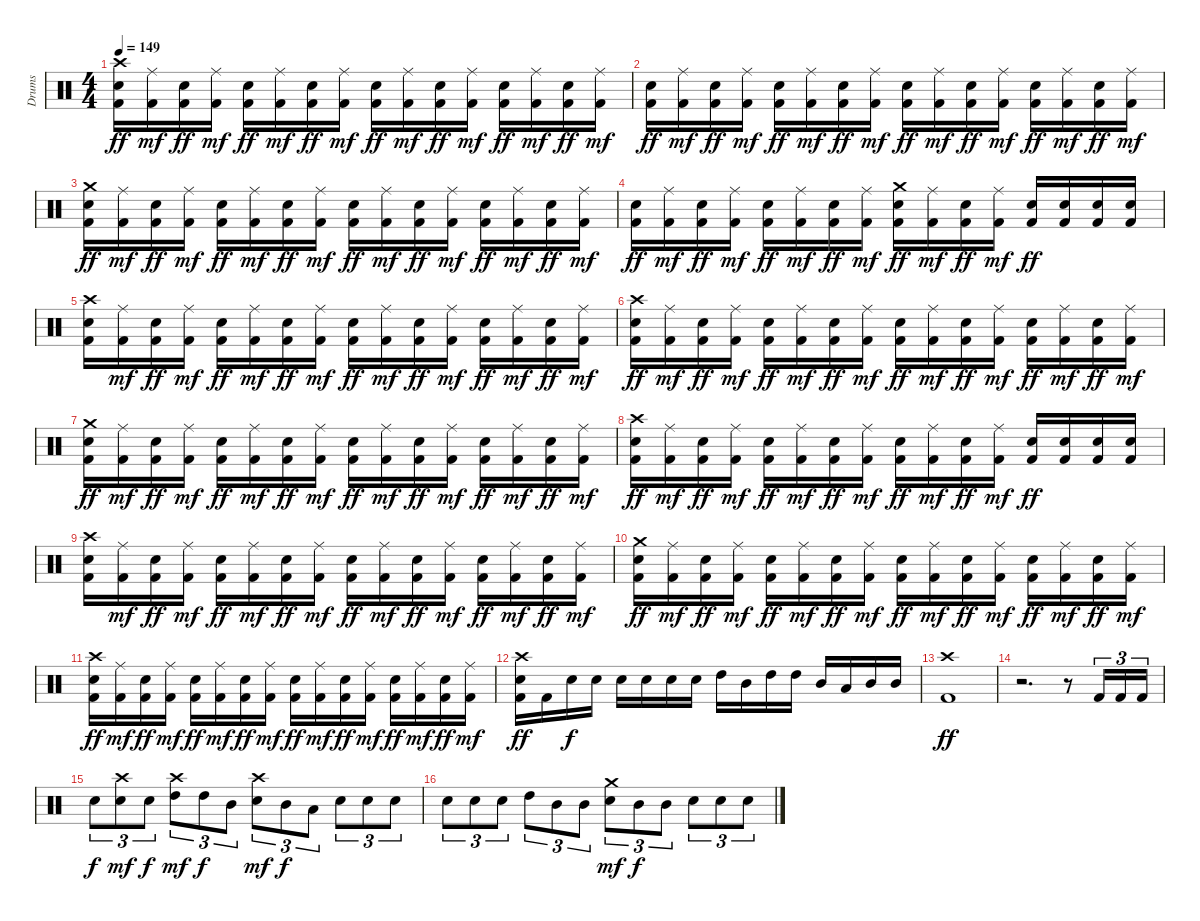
\track ("Drums" "Drums") {instrument percussion}
\staff {score}
\articulation defaults
\ts (4 4)
\tempo 149
\clef neutral
\ks c
("Crash high (hit)" "Snare (hit) 2" "Kick (hit) 2").16{dy ff} ("Kick (hit) 2" "Ride (middle)").16{dy mf} ("Snare (hit) 2" "Kick (hit) 2").16{dy ff} ("Kick (hit) 2" "Ride (middle)").16{dy mf} ("Snare (hit) 2" "Kick (hit) 2").16{dy ff} ("Kick (hit) 2" "Ride (middle)").16{dy mf} ("Snare (hit) 2" "Kick (hit) 2").16{dy ff} ("Kick (hit) 2" "Ride (middle)").16{dy mf} ("Snare (hit) 2" "Kick (hit) 2").16{dy ff} ("Kick (hit) 2" "Ride (middle)").16{dy mf} ("Snare (hit) 2" "Kick (hit) 2").16{dy ff} ("Kick (hit) 2" "Ride (middle)").16{dy mf} ("Snare (hit) 2" "Kick (hit) 2").16{dy ff} ("Kick (hit) 2" "Ride (middle)").16{dy mf} ("Snare (hit) 2" "Kick (hit) 2").16{dy ff} ("Kick (hit) 2" "Ride (middle)").16{dy mf} |
("Snare (hit) 2" "Kick (hit) 2").16{dy ff} ("Kick (hit) 2" "Ride (middle)").16{dy mf} ("Snare (hit) 2" "Kick (hit) 2").16{dy ff} ("Kick (hit) 2" "Ride (middle)").16{dy mf} ("Snare (hit) 2" "Kick (hit) 2").16{dy ff} ("Kick (hit) 2" "Ride (middle)").16{dy mf} ("Snare (hit) 2" "Kick (hit) 2").16{dy ff} ("Kick (hit) 2" "Ride (middle)").16{dy mf} ("Snare (hit) 2" "Kick (hit) 2").16{dy ff} ("Kick (hit) 2" "Ride (middle)").16{dy mf} ("Snare (hit) 2" "Kick (hit) 2").16{dy ff} ("Kick (hit) 2" "Ride (middle)").16{dy mf} ("Snare (hit) 2" "Kick (hit) 2").16{dy ff} ("Kick (hit) 2" "Ride (middle)").16{dy mf} ("Snare (hit) 2" "Kick (hit) 2").16{dy ff} ("Kick (hit) 2" "Ride (middle)").16{dy mf} |
("Crash medium (hit)" "Snare (hit) 2" "Kick (hit) 2").16{dy ff} ("Kick (hit) 2" "Ride (middle)").16{dy mf} ("Snare (hit) 2" "Kick (hit) 2").16{dy ff} ("Kick (hit) 2" "Ride (middle)").16{dy mf} ("Snare (hit) 2" "Kick (hit) 2").16{dy ff} ("Kick (hit) 2" "Ride (middle)").16{dy mf} ("Snare (hit) 2" "Kick (hit) 2").16{dy ff} ("Kick (hit) 2" "Ride (middle)").16{dy mf} ("Snare (hit) 2" "Kick (hit) 2").16{dy ff} ("Kick (hit) 2" "Ride (middle)").16{dy mf} ("Snare (hit) 2" "Kick (hit) 2").16{dy ff} ("Kick (hit) 2" "Ride (middle)").16{dy mf} ("Snare (hit) 2" "Kick (hit) 2").16{dy ff} ("Kick (hit) 2" "Ride (middle)").16{dy mf} ("Snare (hit) 2" "Kick (hit) 2").16{dy ff} ("Kick (hit) 2" "Ride (middle)").16{dy mf} |
("Snare (hit) 2" "Kick (hit) 2").16{dy ff} ("Kick (hit) 2" "Ride (middle)").16{dy mf} ("Snare (hit) 2" "Kick (hit) 2").16{dy ff} ("Kick (hit) 2" "Ride (middle)").16{dy mf} ("Snare (hit) 2" "Kick (hit) 2").16{dy ff} ("Kick (hit) 2" "Ride (middle)").16{dy mf} ("Snare (hit) 2" "Kick (hit) 2").16{dy ff} ("Kick (hit) 2" "Ride (middle)").16{dy mf} ("Crash medium (hit)" "Snare (hit) 2" "Kick (hit) 2").16{dy ff} ("Kick (hit) 2" "Ride (middle)").16{dy mf} ("Snare (hit) 2" "Kick (hit) 2").16{dy ff} ("Kick (hit) 2" "Ride (middle)").16{dy mf} ("Snare (hit) 2" "Kick (hit) 2").16{dy ff} ("Snare (hit) 2" "Kick (hit) 2").16 ("Snare (hit) 2" "Kick (hit) 2").16 ("Snare (hit) 2" "Kick (hit) 2").16 |
("Crash high (hit)" "Snare (hit) 2" "Kick (hit) 2").16 ("Kick (hit) 2" "Ride (middle)").16{dy mf} ("Snare (hit) 2" "Kick (hit) 2").16{dy ff} ("Kick (hit) 2" "Ride (middle)").16{dy mf} ("Snare (hit) 2" "Kick (hit) 2").16{dy ff} ("Kick (hit) 2" "Ride (middle)").16{dy mf} ("Snare (hit) 2" "Kick (hit) 2").16{dy ff} ("Kick (hit) 2" "Ride (middle)").16{dy mf} ("Snare (hit) 2" "Kick (hit) 2").16{dy ff} ("Kick (hit) 2" "Ride (middle)").16{dy mf} ("Snare (hit) 2" "Kick (hit) 2").16{dy ff} ("Kick (hit) 2" "Ride (middle)").16{dy mf} ("Snare (hit) 2" "Kick (hit) 2").16{dy ff} ("Kick (hit) 2" "Ride (middle)").16{dy mf} ("Snare (hit) 2" "Kick (hit) 2").16{dy ff} ("Kick (hit) 2" "Ride (middle)").16{dy mf} |
("Crash high (hit)" "Snare (hit) 2" "Kick (hit) 2").16{dy ff} ("Kick (hit) 2" "Ride (middle)").16{dy mf} ("Snare (hit) 2" "Kick (hit) 2").16{dy ff} ("Kick (hit) 2" "Ride (middle)").16{dy mf} ("Snare (hit) 2" "Kick (hit) 2").16{dy ff} ("Kick (hit) 2" "Ride (middle)").16{dy mf} ("Snare (hit) 2" "Kick (hit) 2").16{dy ff} ("Kick (hit) 2" "Ride (middle)").16{dy mf} ("Snare (hit) 2" "Kick (hit) 2").16{dy ff} ("Kick (hit) 2" "Ride (middle)").16{dy mf} ("Snare (hit) 2" "Kick (hit) 2").16{dy ff} ("Kick (hit) 2" "Ride (middle)").16{dy mf} ("Snare (hit) 2" "Kick (hit) 2").16{dy ff} ("Kick (hit) 2" "Ride (middle)").16{dy mf} ("Snare (hit) 2" "Kick (hit) 2").16{dy ff} ("Kick (hit) 2" "Ride (middle)").16{dy mf} |
("Crash medium (hit)" "Snare (hit) 2" "Kick (hit) 2").16{dy ff} ("Kick (hit) 2" "Ride (middle)").16{dy mf} ("Snare (hit) 2" "Kick (hit) 2").16{dy ff} ("Kick (hit) 2" "Ride (middle)").16{dy mf} ("Snare (hit) 2" "Kick (hit) 2").16{dy ff} ("Kick (hit) 2" "Ride (middle)").16{dy mf} ("Snare (hit) 2" "Kick (hit) 2").16{dy ff} ("Kick (hit) 2" "Ride (middle)").16{dy mf} ("Snare (hit) 2" "Kick (hit) 2").16{dy ff} ("Kick (hit) 2" "Ride (middle)").16{dy mf} ("Snare (hit) 2" "Kick (hit) 2").16{dy ff} ("Kick (hit) 2" "Ride (middle)").16{dy mf} ("Snare (hit) 2" "Kick (hit) 2").16{dy ff} ("Kick (hit) 2" "Ride (middle)").16{dy mf} ("Snare (hit) 2" "Kick (hit) 2").16{dy ff} ("Kick (hit) 2" "Ride (middle)").16{dy mf} |
("Crash high (hit)" "Snare (hit) 2" "Kick (hit) 2").16{dy ff} ("Kick (hit) 2" "Ride (middle)").16{dy mf} ("Snare (hit) 2" "Kick (hit) 2").16{dy ff} ("Kick (hit) 2" "Ride (middle)").16{dy mf} ("Snare (hit) 2" "Kick (hit) 2").16{dy ff} ("Kick (hit) 2" "Ride (middle)").16{dy mf} ("Snare (hit) 2" "Kick (hit) 2").16{dy ff} ("Kick (hit) 2" "Ride (middle)").16{dy mf} ("Snare (hit) 2" "Kick (hit) 2").16{dy ff} ("Kick (hit) 2" "Ride (middle)").16{dy mf} ("Snare (hit) 2" "Kick (hit) 2").16{dy ff} ("Kick (hit) 2" "Ride (middle)").16{dy mf} ("Snare (hit) 2" "Kick (hit) 2").16{dy ff} ("Snare (hit) 2" "Kick (hit) 2").16 ("Snare (hit) 2" "Kick (hit) 2").16 ("Snare (hit) 2" "Kick (hit) 2").16 |
("Crash high (hit)" "Snare (hit) 2" "Kick (hit) 2").16 ("Kick (hit) 2" "Ride (middle)").16{dy mf} ("Snare (hit) 2" "Kick (hit) 2").16{dy ff} ("Kick (hit) 2" "Ride (middle)").16{dy mf} ("Snare (hit) 2" "Kick (hit) 2").16{dy ff} ("Kick (hit) 2" "Ride (middle)").16{dy mf} ("Snare (hit) 2" "Kick (hit) 2").16{dy ff} ("Kick (hit) 2" "Ride (middle)").16{dy mf} ("Snare (hit) 2" "Kick (hit) 2").16{dy ff} ("Kick (hit) 2" "Ride (middle)").16{dy mf} ("Snare (hit) 2" "Kick (hit) 2").16{dy ff} ("Kick (hit) 2" "Ride (middle)").16{dy mf} ("Snare (hit) 2" "Kick (hit) 2").16{dy ff} ("Kick (hit) 2" "Ride (middle)").16{dy mf} ("Snare (hit) 2" "Kick (hit) 2").16{dy ff} ("Kick (hit) 2" "Ride (middle)").16{dy mf} |
("Crash medium (hit)" "Snare (hit) 2" "Kick (hit) 2").16{dy ff} ("Kick (hit) 2" "Ride (middle)").16{dy mf} ("Snare (hit) 2" "Kick (hit) 2").16{dy ff} ("Kick (hit) 2" "Ride (middle)").16{dy mf} ("Snare (hit) 2" "Kick (hit) 2").16{dy ff} ("Kick (hit) 2" "Ride (middle)").16{dy mf} ("Snare (hit) 2" "Kick (hit) 2").16{dy ff} ("Kick (hit) 2" "Ride (middle)").16{dy mf} ("Snare (hit) 2" "Kick (hit) 2").16{dy ff} ("Kick (hit) 2" "Ride (middle)").16{dy mf} ("Snare (hit) 2" "Kick (hit) 2").16{dy ff} ("Kick (hit) 2" "Ride (middle)").16{dy mf} ("Snare (hit) 2" "Kick (hit) 2").16{dy ff} ("Kick (hit) 2" "Ride (middle)").16{dy mf} ("Snare (hit) 2" "Kick (hit) 2").16{dy ff} ("Kick (hit) 2" "Ride (middle)").16{dy mf} |
("Crash high (hit)" "Snare (hit) 2" "Kick (hit) 2").16{dy ff} ("Kick (hit) 2" "Ride (middle)").16{dy mf} ("Snare (hit) 2" "Kick (hit) 2").16{dy ff} ("Kick (hit) 2" "Ride (middle)").16{dy mf} ("Snare (hit) 2" "Kick (hit) 2").16{dy ff} ("Kick (hit) 2" "Ride (middle)").16{dy mf} ("Snare (hit) 2" "Kick (hit) 2").16{dy ff} ("Kick (hit) 2" "Ride (middle)").16{dy mf} ("Snare (hit) 2" "Kick (hit) 2").16{dy ff} ("Kick (hit) 2" "Ride (middle)").16{dy mf} ("Snare (hit) 2" "Kick (hit) 2").16{dy ff} ("Kick (hit) 2" "Ride (middle)").16{dy mf} ("Snare (hit) 2" "Kick (hit) 2").16{dy ff} ("Kick (hit) 2" "Ride (middle)").16{dy mf} ("Snare (hit) 2" "Kick (hit) 2").16{dy ff} ("Kick (hit) 2" "Ride (middle)").16{dy mf} |
("Crash high (hit)" "Snare (hit) 2" "Kick (hit) 2").16{dy ff} "Kick (hit) 2".16 "Snare (hit) 2".16{dy f} "Snare (hit) 2".16 "Snare (hit) 2".16 "Snare (hit) 2".16 "Snare (hit) 2".16 "Snare (hit) 2".16 "High Tom (hit)".16 "Mid Tom (hit)".16 "High Tom (hit)".16 "High Tom (hit)".16 "Mid Tom (hit)".16 "Low Tom (hit)".16 "Mid Tom (hit)".16 "Mid Tom (hit)".16 |
("Crash high (hit)" "Kick (hit) 2").1{dy ff} |
r.2{d} r.8 "Kick (hit) 2".16{tu (3 2)} "Kick (hit) 2".16{tu (3 2)} "Kick (hit) 2".16{tu (3 2)} |
"Snare (hit) 2".8{tu (3 2) dy f} ("Crash high (hit)" "Snare (hit) 2").8{tu (3 2) dy mf} "Snare (hit) 2".8{tu (3 2) dy f} ("Crash high (hit)" "High Tom (hit)").8{tu (3 2) dy mf} "High Tom (hit)".8{tu (3 2) dy f} "Mid Tom (hit)".8{tu (3 2)} ("Crash high (hit)" "Snare (hit) 2").8{tu (3 2) dy mf} "Mid Tom (hit)".8{tu (3 2) dy f} "Low Tom (hit)".8{tu (3 2)} "Snare (hit) 2".8{tu (3 2)} "Snare (hit) 2".8{tu (3 2)} "Snare (hit) 2".8{tu (3 2)} |
"Snare (hit) 2".8{tu (3 2)} "Snare (hit) 2".8{tu (3 2)} "Snare (hit) 2".8{tu (3 2)} "High Tom (hit)".8{tu (3 2)} "Mid Tom (hit)".8{tu (3 2)} "Mid Tom (hit)".8{tu (3 2)} ("Crash medium (hit)" "Snare (hit) 2").8{tu (3 2) dy mf} "Mid Tom (hit)".8{tu (3 2) dy f} "Mid Tom (hit)".8{tu (3 2)} "Snare (hit) 2".8{tu (3 2)} "Snare (hit) 2".8{tu (3 2)} "Snare (hit) 2".8{tu (3 2)}
